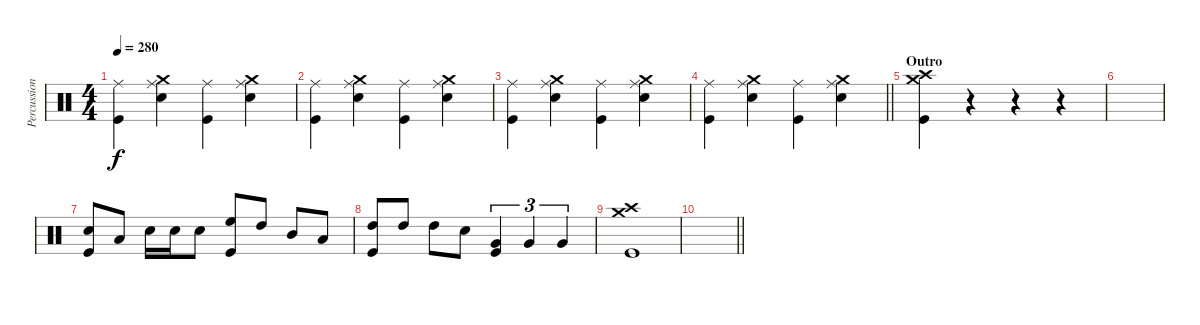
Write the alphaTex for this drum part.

\track ("Percussion" "Percussion") {instrument percussion}
\staff {score}
\articulation defaults
\ts (4 4)
\tempo 280
\clef neutral
\ks c
("Ride (middle)" "Kick (hit)").4{dy f} ("Crash medium (hit)" "Ride (middle)" "Snare (hit) 2").4 ("Ride (middle)" "Kick (hit)").4 ("Crash medium (hit)" "Ride (middle)" "Snare (hit) 2").4 |
("Ride (middle)" "Kick (hit)").4 ("Crash medium (hit)" "Ride (middle)" "Snare (hit) 2").4 ("Ride (middle)" "Kick (hit)").4 ("Crash medium (hit)" "Ride (middle)" "Snare (hit) 2").4 |
("Ride (middle)" "Kick (hit)").4 ("Crash medium (hit)" "Ride (middle)" "Snare (hit) 2").4 ("Ride (middle)" "Kick (hit)").4 ("Crash medium (hit)" "Ride (middle)" "Snare (hit) 2").4 |
\barLineRight lightlight
("Ride (middle)" "Kick (hit)").4 ("Crash medium (hit)" "Ride (middle)" "Snare (hit) 2").4 ("Ride (middle)" "Kick (hit)").4 ("Crash medium (hit)" "Ride (middle)" "Snare (hit) 2").4 |
\section ("" "Outro")
("Crash high (hit)" "Crash medium (hit)" "Kick (hit)").4 r.4 r.4 r.4 |
|
("Snare (hit) 2" "Kick (hit)").8 "Low Tom (hit)".8 "Snare (hit) 2".16 "Snare (hit) 2".16 "Snare (hit) 2".8 ("High Floor Tom (hit)" "Kick (hit)").8 "High Tom (hit)".8 "Mid Tom (hit)".8 "Low Tom (hit)".8 |
("High Tom (hit)" "Kick (hit)").8 "High Tom (hit)".8 "High Tom (hit)".8 "Snare (hit) 2".8 ("Very Low Tom (hit)" "Kick (hit)").4{tu (3 2)} "Very Low Tom (hit)".4{tu (3 2)} "Very Low Tom (hit)".4{tu (3 2)} |
("Crash high (hit)" "Crash medium (hit)" "Kick (hit)").1 |
\barLineRight lightlight
